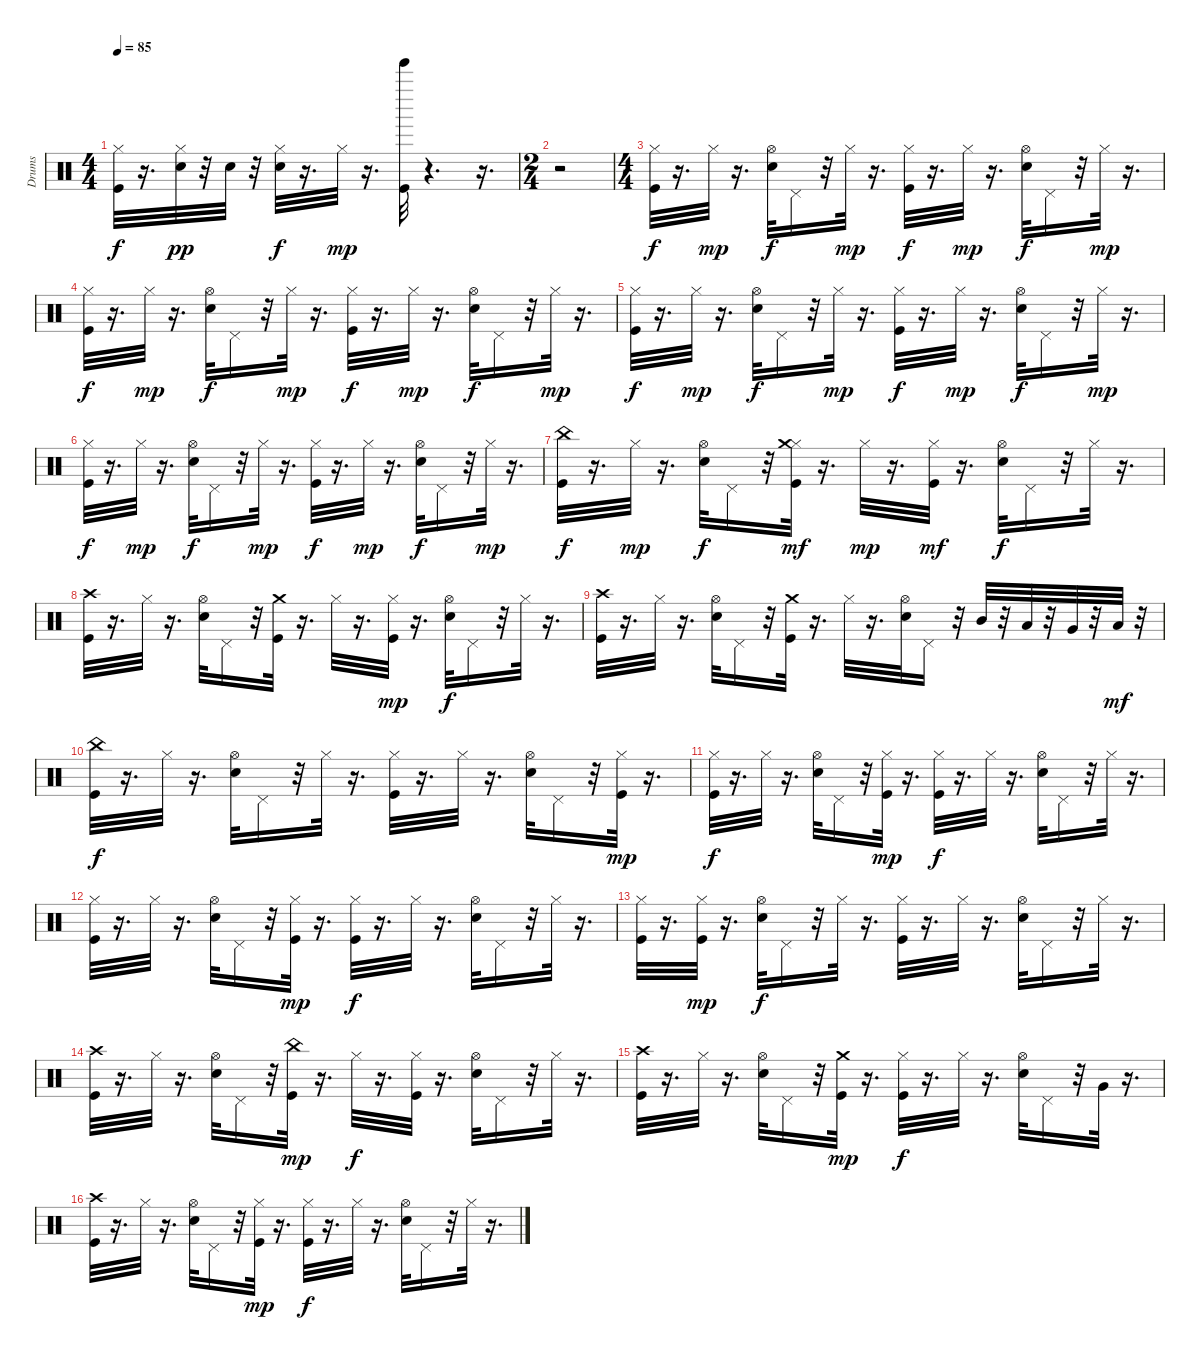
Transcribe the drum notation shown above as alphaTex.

\track ("Drums" "Drums") {instrument percussion}
\staff {score}
\articulation defaults
\ts (4 4)
\tempo 85
\clef neutral
\ks c
("Hi-Hat (closed)" "Kick (hit)").32{dy f} r.16{d} ("Hi-Hat (closed)" "Snare (hit) 2").32{dy pp} r.32 "Snare (hit) 2".32 r.32 ("Hi-Hat (closed)" "Snare (hit) 2").32{dy f} r.16{d} "Hi-Hat (closed)".32{dy mp} r.16{d} ("Tinkle Bell (hit)" "Kick (hit)").32 r.4{d} r.16{d} |
\ts (2 4)
r.2 |
\ts (4 4)
("Hi-Hat (closed)" "Kick (hit)").32{dy f} r.16{d} "Hi-Hat (closed)".32{dy mp} r.16{d} ("Hi-Hat (open)" "Snare (hit) 2").32{dy f} "Pedal Hi-Hat (hit)".16 r.32 "Hi-Hat (closed)".32{dy mp} r.16{d} ("Hi-Hat (closed)" "Kick (hit)").32{dy f} r.16{d} "Hi-Hat (closed)".32{dy mp} r.16{d} ("Hi-Hat (open)" "Snare (hit) 2").32{dy f} "Pedal Hi-Hat (hit)".16 r.32 "Hi-Hat (closed)".32{dy mp} r.16{d} |
("Hi-Hat (closed)" "Kick (hit)").32{dy f} r.16{d} "Hi-Hat (closed)".32{dy mp} r.16{d} ("Hi-Hat (open)" "Snare (hit) 2").32{dy f} "Pedal Hi-Hat (hit)".16 r.32 "Hi-Hat (closed)".32{dy mp} r.16{d} ("Hi-Hat (closed)" "Kick (hit)").32{dy f} r.16{d} "Hi-Hat (closed)".32{dy mp} r.16{d} ("Hi-Hat (open)" "Snare (hit) 2").32{dy f} "Pedal Hi-Hat (hit)".16 r.32 "Hi-Hat (closed)".32{dy mp} r.16{d} |
("Hi-Hat (closed)" "Kick (hit)").32{dy f} r.16{d} "Hi-Hat (closed)".32{dy mp} r.16{d} ("Hi-Hat (open)" "Snare (hit) 2").32{dy f} "Pedal Hi-Hat (hit)".16 r.32 "Hi-Hat (closed)".32{dy mp} r.16{d} ("Hi-Hat (closed)" "Kick (hit)").32{dy f} r.16{d} "Hi-Hat (closed)".32{dy mp} r.16{d} ("Hi-Hat (open)" "Snare (hit) 2").32{dy f} "Pedal Hi-Hat (hit)".16 r.32 "Hi-Hat (closed)".32{dy mp} r.16{d} |
("Hi-Hat (closed)" "Kick (hit)").32{dy f} r.16{d} "Hi-Hat (closed)".32{dy mp} r.16{d} ("Hi-Hat (open)" "Snare (hit) 2").32{dy f} "Pedal Hi-Hat (hit)".16 r.32 "Hi-Hat (closed)".32{dy mp} r.16{d} ("Hi-Hat (closed)" "Kick (hit)").32{dy f} r.16{d} "Hi-Hat (closed)".32{dy mp} r.16{d} ("Hi-Hat (open)" "Snare (hit) 2").32{dy f} "Pedal Hi-Hat (hit)".16 r.32 "Hi-Hat (closed)".32{dy mp} r.16{d} |
("China (hit)" "Kick (hit)").32{dy f} r.16{d} "Hi-Hat (closed)".32{dy mp} r.16{d} ("Hi-Hat (open)" "Snare (hit) 2").32{dy f} "Pedal Hi-Hat (hit)".16 r.32 ("Hi-Hat (closed)" "Kick (hit)" "Crash medium (hit)").32{dy mf} r.16{d} "Hi-Hat (closed)".32{dy mp} r.16{d} ("Hi-Hat (closed)" "Kick (hit)").32{dy mf} r.16{d} ("Snare (hit) 2" "Hi-Hat (open)").32{dy f} "Pedal Hi-Hat (hit)".16 r.32 "Hi-Hat (closed)".32 r.16{d} |
("Crash high (hit)" "Kick (hit)").32 r.16{d} "Hi-Hat (closed)".32 r.16{d} ("Hi-Hat (open)" "Snare (hit) 2").32 "Pedal Hi-Hat (hit)".16 r.32 ("Crash medium (hit)" "Kick (hit)").32 r.16{d} "Hi-Hat (closed)".32 r.16{d} ("Kick (hit)" "Hi-Hat (closed)").32{dy mp} r.16{d} ("Hi-Hat (open)" "Snare (hit) 2").32{dy f} "Pedal Hi-Hat (hit)".16 r.32 "Hi-Hat (closed)".32 r.16{d} |
("Crash high (hit)" "Kick (hit)").32 r.16{d} "Hi-Hat (closed)".32 r.16{d} ("Hi-Hat (open)" "Snare (hit) 2").32 "Pedal Hi-Hat (hit)".16 r.32 ("Crash medium (hit)" "Kick (hit)").32 r.16{d} "Hi-Hat (closed)".32 r.16{d} ("Snare (hit) 2" "Hi-Hat (open)").32 "Pedal Hi-Hat (hit)".16 r.32 "Mid Tom (hit)".32 r.32 "Low Tom (hit)".32 r.32 "Very Low Tom (hit)".32 r.32 "Low Floor Tom (hit)".32{dy mf} r.32 |
("China (hit)" "Kick (hit)").32{dy f} r.16{d} "Hi-Hat (closed)".32 r.16{d} ("Hi-Hat (open)" "Snare (hit) 2").32 "Pedal Hi-Hat (hit)".16 r.32 "Hi-Hat (closed)".32 r.16{d} ("Kick (hit)" "Hi-Hat (closed)").32 r.16{d} "Hi-Hat (closed)".32 r.16{d} ("Hi-Hat (open)" "Snare (hit) 2").32 "Pedal Hi-Hat (hit)".16 r.32 ("Kick (hit)" "Hi-Hat (closed)").32{dy mp} r.16{d} |
("Hi-Hat (closed)" "Kick (hit)").32{dy f} r.16{d} "Hi-Hat (closed)".32 r.16{d} ("Hi-Hat (open)" "Snare (hit) 2").32 "Pedal Hi-Hat (hit)".16 r.32 ("Kick (hit)" "Hi-Hat (closed)").32{dy mp} r.16{d} ("Kick (hit)" "Hi-Hat (closed)").32{dy f} r.16{d} "Hi-Hat (closed)".32 r.16{d} ("Hi-Hat (open)" "Snare (hit) 2").32 "Pedal Hi-Hat (hit)".16 r.32 "Hi-Hat (closed)".32 r.16{d} |
("Hi-Hat (closed)" "Kick (hit)").32 r.16{d} "Hi-Hat (closed)".32 r.16{d} ("Hi-Hat (open)" "Snare (hit) 2").32 "Pedal Hi-Hat (hit)".16 r.32 ("Kick (hit)" "Hi-Hat (closed)").32{dy mp} r.16{d} ("Kick (hit)" "Hi-Hat (closed)").32{dy f} r.16{d} "Hi-Hat (closed)".32 r.16{d} ("Hi-Hat (open)" "Snare (hit) 2").32 "Pedal Hi-Hat (hit)".16 r.32 "Hi-Hat (closed)".32 r.16{d} |
("Hi-Hat (closed)" "Kick (hit)").32 r.16{d} ("Hi-Hat (closed)" "Kick (hit)").32{dy mp} r.16{d} ("Hi-Hat (open)" "Snare (hit) 2").32{dy f} "Pedal Hi-Hat (hit)".16 r.32 "Hi-Hat (closed)".32 r.16{d} ("Kick (hit)" "Hi-Hat (closed)").32 r.16{d} "Hi-Hat (closed)".32 r.16{d} ("Hi-Hat (open)" "Snare (hit) 2").32 "Pedal Hi-Hat (hit)".16 r.32 "Hi-Hat (closed)".32 r.16{d} |
("Crash high (hit)" "Kick (hit)").32 r.16{d} "Hi-Hat (closed)".32 r.16{d} ("Hi-Hat (open)" "Snare (hit) 2").32 "Pedal Hi-Hat (hit)".16 r.32 ("Kick (hit)" "China (hit)").32{dy mp} r.16{d} "Hi-Hat (closed)".32{dy f} r.16{d} ("Hi-Hat (closed)" "Kick (hit)").32 r.16{d} ("Hi-Hat (open)" "Snare (hit) 2").32 "Pedal Hi-Hat (hit)".16 r.32 "Hi-Hat (closed)".32 r.16{d} |
("Crash high (hit)" "Kick (hit)").32 r.16{d} "Hi-Hat (closed)".32 r.16{d} ("Hi-Hat (open)" "Snare (hit) 2").32 "Pedal Hi-Hat (hit)".16 r.32 ("Kick (hit)" "Crash medium (hit)").32{dy mp} r.16{d} ("Kick (hit)" "Hi-Hat (closed)").32{dy f} r.16{d} "Hi-Hat (closed)".32 r.16{d} ("Hi-Hat (open)" "Snare (hit) 2").32 "Pedal Hi-Hat (hit)".16 r.32 "Very Low Tom (hit)".32 r.16{d} |
("Crash high (hit)" "Kick (hit)").32 r.16{d} "Hi-Hat (closed)".32 r.16{d} ("Hi-Hat (open)" "Snare (hit) 2").32 "Pedal Hi-Hat (hit)".16 r.32 ("Kick (hit)" "Hi-Hat (closed)").32{dy mp} r.16{d} ("Kick (hit)" "Hi-Hat (closed)").32{dy f} r.16{d} "Hi-Hat (closed)".32 r.16{d} ("Hi-Hat (open)" "Snare (hit) 2").32 "Pedal Hi-Hat (hit)".16 r.32 "Hi-Hat (closed)".32 r.16{d}
